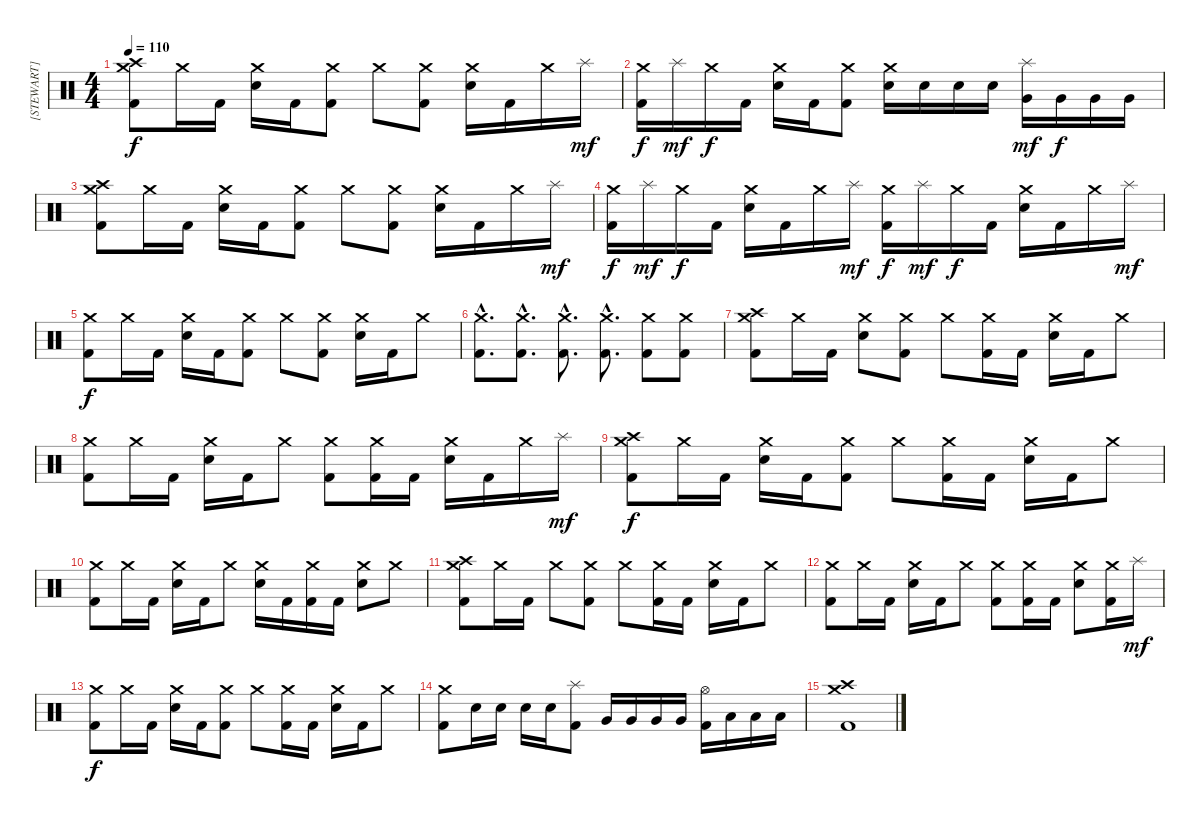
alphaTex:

\track ("[STEWART]" "[STEWART]") {instrument percussion}
\staff {score}
\articulation defaults
\ts (4 4)
\tempo 110
\clef neutral
\ks c
("Crash medium (hit)" "Crash high (hit)" "Kick (hit) 2").8{dy f} "Crash medium (hit)".16 "Kick (hit) 2".16 ("Crash medium (hit)" "Electric Snare (hit)").16 "Kick (hit) 2".16 ("Crash medium (hit)" "Kick (hit) 2").8 "Crash medium (hit)".8 ("Crash medium (hit)" "Kick (hit) 2").8 ("Crash medium (hit)" "Electric Snare (hit)").16 "Kick (hit) 2".16 "Crash medium (hit)".16 "Splash (hit)".16{dy mf} |
("Crash medium (hit)" "Kick (hit) 2").16{dy f} "Splash (hit)".16{dy mf} "Crash medium (hit)".16{dy f} "Kick (hit) 2".16 ("Crash medium (hit)" "Electric Snare (hit)").16 "Kick (hit) 2".16 ("Crash medium (hit)" "Kick (hit) 2").8 ("Crash medium (hit)" "Electric Snare (hit)").16 "Electric Snare (hit)".16 "Electric Snare (hit)".16 "Electric Snare (hit)".16 ("Splash (hit)" "Very Low Tom (hit)").16{dy mf} "Very Low Tom (hit)".16{dy f} "Very Low Tom (hit)".16 "Very Low Tom (hit)".16 |
("Crash medium (hit)" "Crash high (hit)" "Kick (hit) 2").8 "Crash medium (hit)".16 "Kick (hit) 2".16 ("Crash medium (hit)" "Electric Snare (hit)").16 "Kick (hit) 2".16 ("Crash medium (hit)" "Kick (hit) 2").8 "Crash medium (hit)".8 ("Crash medium (hit)" "Kick (hit) 2").8 ("Crash medium (hit)" "Electric Snare (hit)").16 "Kick (hit) 2".16 "Crash medium (hit)".16 "Splash (hit)".16{dy mf} |
("Crash medium (hit)" "Kick (hit) 2").16{dy f} "Splash (hit)".16{dy mf} "Crash medium (hit)".16{dy f} "Kick (hit) 2".16 ("Crash medium (hit)" "Electric Snare (hit)").16 "Kick (hit) 2".16 "Crash medium (hit)".16 "Splash (hit)".16{dy mf} ("Crash medium (hit)" "Kick (hit) 2").16{dy f} "Splash (hit)".16{dy mf} "Crash medium (hit)".16{dy f} "Kick (hit) 2".16 ("Crash medium (hit)" "Electric Snare (hit)").16 "Kick (hit) 2".16 "Crash medium (hit)".16 "Splash (hit)".16{dy mf} |
("Crash medium (hit)" "Kick (hit) 2").8{dy f} "Crash medium (hit)".16 "Kick (hit) 2".16 ("Crash medium (hit)" "Electric Snare (hit)").16 "Kick (hit) 2".16 ("Crash medium (hit)" "Kick (hit) 2").8 "Crash medium (hit)".8 ("Crash medium (hit)" "Kick (hit) 2").8 ("Crash medium (hit)" "Electric Snare (hit)").16 "Kick (hit) 2".16 "Crash medium (hit)".8 |
("Crash medium (hit)"{hac} "Kick (hit) 2"{hac}).8{d} ("Crash medium (hit)"{hac} "Kick (hit) 2"{hac}).8{d} ("Crash medium (hit)"{hac} "Kick (hit) 2"{hac}).8{d} ("Crash medium (hit)"{hac} "Kick (hit) 2"{hac}).8{d} ("Crash medium (hit)" "Kick (hit) 2").8 ("Crash medium (hit)" "Kick (hit) 2").8 |
("Crash medium (hit)" "Crash high (hit)" "Kick (hit) 2").8 "Crash medium (hit)".16 "Kick (hit) 2".16 ("Crash medium (hit)" "Electric Snare (hit)").8 ("Crash medium (hit)" "Kick (hit) 2").8 "Crash medium (hit)".8 ("Crash medium (hit)" "Kick (hit) 2").16 "Kick (hit) 2".16 ("Crash medium (hit)" "Electric Snare (hit)").16 "Kick (hit) 2".16 "Crash medium (hit)".8 |
("Crash medium (hit)" "Kick (hit) 2").8 "Crash medium (hit)".16 "Kick (hit) 2".16 ("Crash medium (hit)" "Electric Snare (hit)").16 "Kick (hit) 2".16 "Crash medium (hit)".8 ("Crash medium (hit)" "Kick (hit) 2").8 ("Crash medium (hit)" "Kick (hit) 2").16 "Kick (hit) 2".16 ("Crash medium (hit)" "Electric Snare (hit)").16 "Kick (hit) 2".16 "Crash medium (hit)".16 "Splash (hit)".16{dy mf} |
("Crash medium (hit)" "Crash high (hit)" "Kick (hit) 2").8{dy f} "Crash medium (hit)".16 "Kick (hit) 2".16 ("Crash medium (hit)" "Electric Snare (hit)").16 "Kick (hit) 2".16 ("Crash medium (hit)" "Kick (hit) 2").8 "Crash medium (hit)".8 ("Crash medium (hit)" "Kick (hit) 2").16 "Kick (hit) 2".16 ("Crash medium (hit)" "Electric Snare (hit)").16 "Kick (hit) 2".16 "Crash medium (hit)".8 |
("Crash medium (hit)" "Kick (hit) 2").8 "Crash medium (hit)".16 "Kick (hit) 2".16 ("Crash medium (hit)" "Electric Snare (hit)").16 "Kick (hit) 2".16 "Crash medium (hit)".8 ("Crash medium (hit)" "Electric Snare (hit)").16 "Kick (hit) 2".16 ("Crash medium (hit)" "Kick (hit) 2").16 "Kick (hit) 2".16 ("Crash medium (hit)" "Electric Snare (hit)").8 "Crash medium (hit)".8 |
("Crash medium (hit)" "Crash high (hit)" "Kick (hit) 2").8 "Crash medium (hit)".16 "Kick (hit) 2".16 "Crash medium (hit)".8 ("Crash medium (hit)" "Kick (hit) 2").8 "Crash medium (hit)".8 ("Crash medium (hit)" "Kick (hit) 2").16 "Kick (hit) 2".16 ("Crash medium (hit)" "Electric Snare (hit)").16 "Kick (hit) 2".16 "Crash medium (hit)".8 |
("Crash medium (hit)" "Kick (hit) 2").8 "Crash medium (hit)".16 "Kick (hit) 2".16 ("Crash medium (hit)" "Electric Snare (hit)").16 "Kick (hit) 2".16 "Crash medium (hit)".8 ("Crash medium (hit)" "Kick (hit) 2").8 ("Crash medium (hit)" "Kick (hit) 2").16 "Kick (hit) 2".16 ("Crash medium (hit)" "Electric Snare (hit)").8 ("Crash medium (hit)" "Kick (hit) 2").16 "Splash (hit)".16{dy mf} |
("Crash medium (hit)" "Kick (hit) 2").8{dy f} "Crash medium (hit)".16 "Kick (hit) 2".16 ("Crash medium (hit)" "Electric Snare (hit)").16 "Kick (hit) 2".16 ("Crash medium (hit)" "Kick (hit) 2").8 "Crash medium (hit)".8 ("Crash medium (hit)" "Kick (hit) 2").16 "Kick (hit) 2".16 ("Crash medium (hit)" "Electric Snare (hit)").16 "Kick (hit) 2".16 "Crash medium (hit)".8 |
("Crash medium (hit)" "Kick (hit) 2").8 "Electric Snare (hit)".16 "Electric Snare (hit)".16 "Electric Snare (hit)".16 "Electric Snare (hit)".16 ("Splash (hit)" "Kick (hit) 2").8 "Very Low Tom (hit)".16 "Very Low Tom (hit)".16 "Very Low Tom (hit)".16 "Very Low Tom (hit)".16 ("Hi-Hat (open)" "Kick (hit) 2").16 "Low Floor Tom (hit)".16 "Low Floor Tom (hit)".16 "Low Floor Tom (hit)".16 |
("Crash medium (hit)" "Crash high (hit)" "Kick (hit) 2").1
